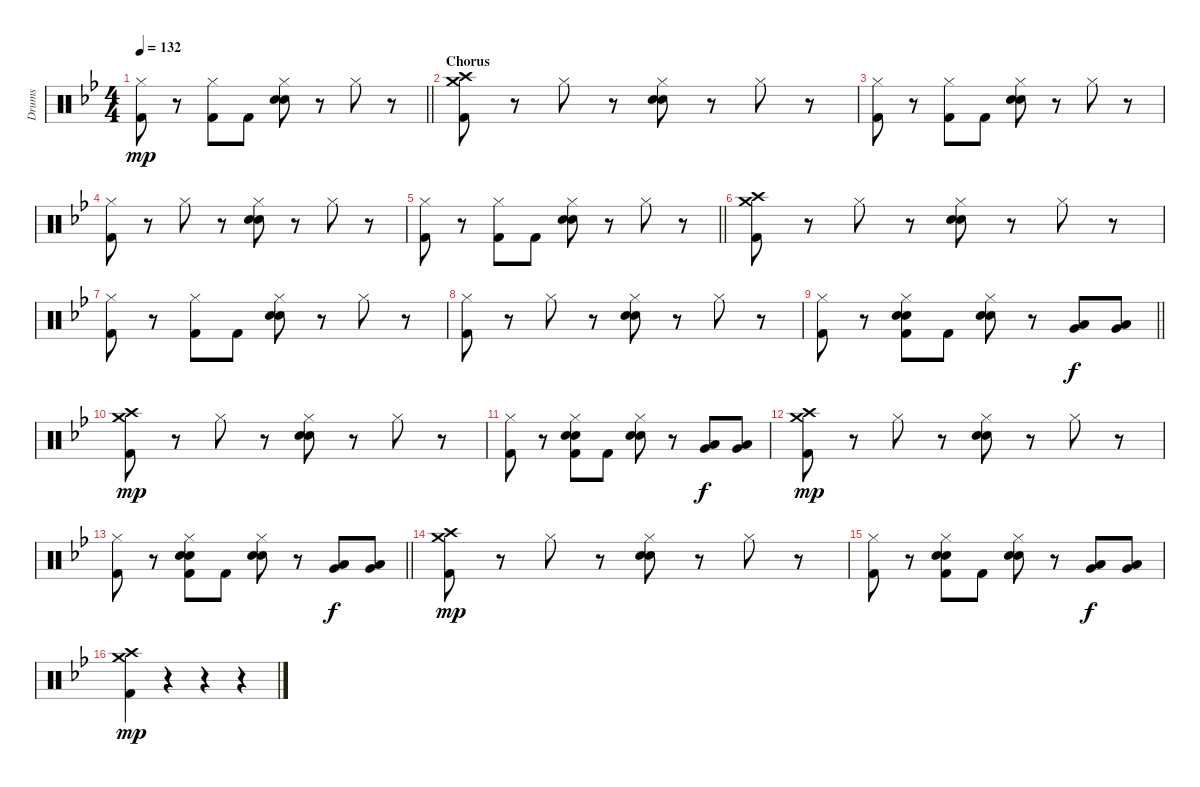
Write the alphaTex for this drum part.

\track ("Drums" "Drums") {instrument percussion}
\staff
\articulation defaults
\ts (4 4)
\tempo 132
\clef neutral
\barLineRight lightlight
\ks bb
("Hi-Hat (closed)" "Kick (hit) 2").8{dy mp} r.8 ("Hi-Hat (closed)" "Kick (hit) 2").8 "Kick (hit) 2".8 ("Hi-Hat (closed)" "Electric Snare (hit)" "Electric Snare (hit)").8 r.8 "Hi-Hat (closed)".8 r.8 |
\section ("" "Chorus")
("Crash high (hit)" "Crash medium (hit)" "Kick (hit) 2").8 r.8 "Hi-Hat (closed)".8 r.8 ("Hi-Hat (closed)" "Electric Snare (hit)" "Electric Snare (hit)").8 r.8 "Hi-Hat (closed)".8 r.8 |
("Hi-Hat (closed)" "Kick (hit) 2").8 r.8 ("Hi-Hat (closed)" "Kick (hit) 2").8 "Kick (hit) 2".8 ("Hi-Hat (closed)" "Electric Snare (hit)" "Electric Snare (hit)").8 r.8 "Hi-Hat (closed)".8 r.8 |
("Hi-Hat (closed)" "Kick (hit) 2").8 r.8 "Hi-Hat (closed)".8 r.8 ("Hi-Hat (closed)" "Electric Snare (hit)" "Electric Snare (hit)").8 r.8 "Hi-Hat (closed)".8 r.8 |
\barLineRight lightlight
("Hi-Hat (closed)" "Kick (hit) 2").8 r.8 ("Hi-Hat (closed)" "Kick (hit) 2").8 "Kick (hit) 2".8 ("Hi-Hat (closed)" "Electric Snare (hit)" "Electric Snare (hit)").8 r.8 "Hi-Hat (closed)".8 r.8 |
("Crash high (hit)" "Crash medium (hit)" "Kick (hit) 2").8 r.8 "Hi-Hat (closed)".8 r.8 ("Hi-Hat (closed)" "Electric Snare (hit)" "Electric Snare (hit)").8 r.8 "Hi-Hat (closed)".8 r.8 |
("Hi-Hat (closed)" "Kick (hit) 2").8 r.8 ("Hi-Hat (closed)" "Kick (hit) 2").8 "Kick (hit) 2".8 ("Hi-Hat (closed)" "Electric Snare (hit)" "Electric Snare (hit)").8 r.8 "Hi-Hat (closed)".8 r.8 |
("Hi-Hat (closed)" "Kick (hit) 2").8 r.8 "Hi-Hat (closed)".8 r.8 ("Hi-Hat (closed)" "Electric Snare (hit)" "Electric Snare (hit)").8 r.8 "Hi-Hat (closed)".8 r.8 |
\barLineRight lightlight
("Hi-Hat (closed)" "Kick (hit) 2").8 r.8 ("Hi-Hat (closed)" "Electric Snare (hit)" "Electric Snare (hit)" "Kick (hit) 2").8 "Kick (hit) 2".8 ("Hi-Hat (closed)" "Electric Snare (hit)" "Electric Snare (hit)").8 r.8 ("Low Floor Tom (hit)" "Very Low Tom (hit)").8{dy f} ("Low Floor Tom (hit)" "Very Low Tom (hit)").8 |
("Crash high (hit)" "Crash medium (hit)" "Kick (hit) 2").8{dy mp} r.8 "Hi-Hat (closed)".8 r.8 ("Hi-Hat (closed)" "Electric Snare (hit)" "Electric Snare (hit)").8 r.8 "Hi-Hat (closed)".8 r.8 |
("Hi-Hat (closed)" "Kick (hit) 2").8 r.8 ("Hi-Hat (closed)" "Electric Snare (hit)" "Electric Snare (hit)" "Kick (hit) 2").8 "Kick (hit) 2".8 ("Hi-Hat (closed)" "Electric Snare (hit)" "Electric Snare (hit)").8 r.8 ("Low Floor Tom (hit)" "Very Low Tom (hit)").8{dy f} ("Low Floor Tom (hit)" "Very Low Tom (hit)").8 |
("Crash high (hit)" "Crash medium (hit)" "Kick (hit) 2").8{dy mp} r.8 "Hi-Hat (closed)".8 r.8 ("Hi-Hat (closed)" "Electric Snare (hit)" "Electric Snare (hit)").8 r.8 "Hi-Hat (closed)".8 r.8 |
\barLineRight lightlight
("Hi-Hat (closed)" "Kick (hit) 2").8 r.8 ("Hi-Hat (closed)" "Electric Snare (hit)" "Electric Snare (hit)" "Kick (hit) 2").8 "Kick (hit) 2".8 ("Hi-Hat (closed)" "Electric Snare (hit)" "Electric Snare (hit)").8 r.8 ("Low Floor Tom (hit)" "Very Low Tom (hit)").8{dy f} ("Low Floor Tom (hit)" "Very Low Tom (hit)").8 |
("Crash high (hit)" "Crash medium (hit)" "Kick (hit) 2").8{dy mp} r.8 "Hi-Hat (closed)".8 r.8 ("Hi-Hat (closed)" "Electric Snare (hit)" "Electric Snare (hit)").8 r.8 "Hi-Hat (closed)".8 r.8 |
("Hi-Hat (closed)" "Kick (hit) 2").8 r.8 ("Hi-Hat (closed)" "Electric Snare (hit)" "Electric Snare (hit)" "Kick (hit) 2").8 "Kick (hit) 2".8 ("Hi-Hat (closed)" "Electric Snare (hit)" "Electric Snare (hit)").8 r.8 ("Low Floor Tom (hit)" "Very Low Tom (hit)").8{dy f} ("Low Floor Tom (hit)" "Very Low Tom (hit)").8 |
("Crash high (hit)" "Crash medium (hit)" "Kick (hit) 2").4{dy mp} r.4 r.4 r.4
